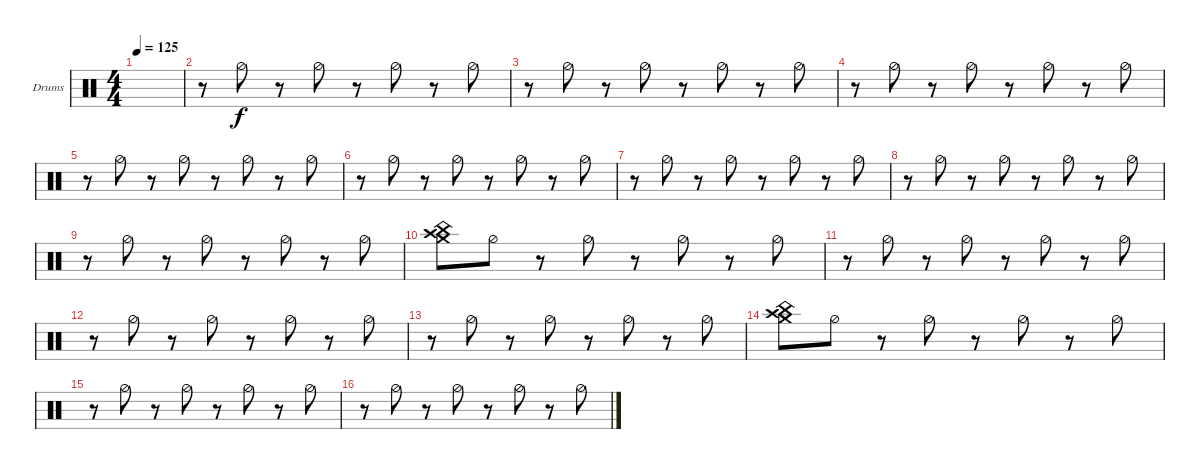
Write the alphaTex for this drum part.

\defaultSystemsLayout 4
\bracketExtendMode groupsimilarinstruments
\firstSystemTrackNameOrientation horizontal
\otherSystemsTrackNameOrientation horizontal
\track ("Drumkit" "Drums") {instrument percussion}
\staff {score}
\articulation defaults
\ts (4 4)
\tempo 125
\clef neutral
\scale
0.474178
\ks c
|
\scale
0.262911 r.8 "Hi-Hat (half)".8 r.8 "Hi-Hat (half)".8 r.8 "Hi-Hat (half)".8 r.8 "Hi-Hat (half)".8 |
\scale
0.262911 r.8 "Hi-Hat (half)".8 r.8 "Hi-Hat (half)".8 r.8 "Hi-Hat (half)".8 r.8 "Hi-Hat (half)".8 |
\scale
0.333333 r.8 "Hi-Hat (half)".8 r.8 "Hi-Hat (half)".8 r.8 "Hi-Hat (half)".8 r.8 "Hi-Hat (half)".8 |
\scale
0.333333 r.8 "Hi-Hat (half)".8 r.8 "Hi-Hat (half)".8 r.8 "Hi-Hat (half)".8 r.8 "Hi-Hat (half)".8 |
\scale
0.333333 r.8 "Hi-Hat (half)".8 r.8 "Hi-Hat (half)".8 r.8 "Hi-Hat (half)".8 r.8 "Hi-Hat (half)".8 |
r.8 "Hi-Hat (half)".8 r.8 "Hi-Hat (half)".8 r.8 "Hi-Hat (half)".8 r.8 "Hi-Hat (half)".8 |
r.8 "Hi-Hat (half)".8 r.8 "Hi-Hat (half)".8 r.8 "Hi-Hat (half)".8 r.8 "Hi-Hat (half)".8 |
r.8 "Hi-Hat (half)".8 r.8 "Hi-Hat (half)".8 r.8 "Hi-Hat (half)".8 r.8 "Hi-Hat (half)".8 |
("Crash medium (hit)" "Crash high (hit)" "China (hit)").8 "Hi-Hat (half)".8 r.8 "Hi-Hat (half)".8 r.8 "Hi-Hat (half)".8 r.8 "Hi-Hat (half)".8 |
r.8 "Hi-Hat (half)".8 r.8 "Hi-Hat (half)".8 r.8 "Hi-Hat (half)".8 r.8 "Hi-Hat (half)".8 |
r.8 "Hi-Hat (half)".8 r.8 "Hi-Hat (half)".8 r.8 "Hi-Hat (half)".8 r.8 "Hi-Hat (half)".8 |
r.8 "Hi-Hat (half)".8 r.8 "Hi-Hat (half)".8 r.8 "Hi-Hat (half)".8 r.8 "Hi-Hat (half)".8 |
("Crash medium (hit)" "Crash high (hit)" "China (hit)").8 "Hi-Hat (half)".8 r.8 "Hi-Hat (half)".8 r.8 "Hi-Hat (half)".8 r.8 "Hi-Hat (half)".8 |
r.8 "Hi-Hat (half)".8 r.8 "Hi-Hat (half)".8 r.8 "Hi-Hat (half)".8 r.8 "Hi-Hat (half)".8 |
r.8 "Hi-Hat (half)".8 r.8 "Hi-Hat (half)".8 r.8 "Hi-Hat (half)".8 r.8 "Hi-Hat (half)".8
